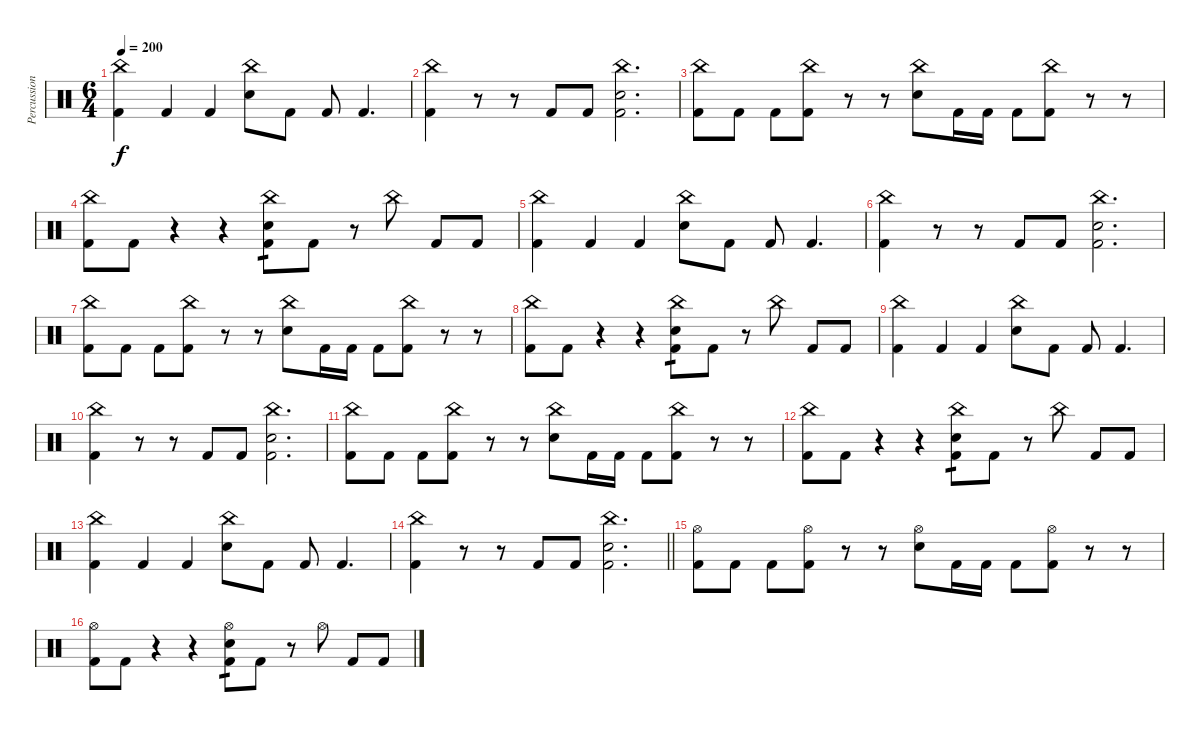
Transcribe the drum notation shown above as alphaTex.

\track ("Percussion" "Percussion") {instrument percussion}
\staff {score}
\articulation defaults
\ts (6 4)
\tempo 200
\clef neutral
\ks c
("China (hit)" "Kick (hit) 2").4{dy f} "Kick (hit) 2".4 "Kick (hit) 2".4 ("China (hit)" "Electric Snare (hit)").8 "Kick (hit) 2".8 "Kick (hit) 2".8 "Kick (hit) 2".4{d} |
("China (hit)" "Kick (hit) 2").4 r.8 r.8 "Kick (hit) 2".8 "Kick (hit) 2".8 ("China (hit)" "Electric Snare (hit)" "Kick (hit) 2").2{d} |
("China (hit)" "Kick (hit) 2").8 "Kick (hit) 2".8 "Kick (hit) 2".8 ("China (hit)" "Kick (hit) 2").8 r.8 r.8 ("China (hit)" "Electric Snare (hit)").8 "Kick (hit) 2".16 "Kick (hit) 2".16 "Kick (hit) 2".8 ("China (hit)" "Kick (hit) 2").8 r.8 r.8 |
("China (hit)" "Kick (hit) 2").8 "Kick (hit) 2".8 r.4 r.4 ("China (hit)" "Electric Snare (hit)" "Kick (hit) 2").8{tp 1} "Kick (hit) 2".8 r.8 "China (hit)".8 "Kick (hit) 2".8 "Kick (hit) 2".8 |
("China (hit)" "Kick (hit) 2").4 "Kick (hit) 2".4 "Kick (hit) 2".4 ("China (hit)" "Electric Snare (hit)").8 "Kick (hit) 2".8 "Kick (hit) 2".8 "Kick (hit) 2".4{d} |
("China (hit)" "Kick (hit) 2").4 r.8 r.8 "Kick (hit) 2".8 "Kick (hit) 2".8 ("China (hit)" "Electric Snare (hit)" "Kick (hit) 2").2{d} |
("China (hit)" "Kick (hit) 2").8 "Kick (hit) 2".8 "Kick (hit) 2".8 ("China (hit)" "Kick (hit) 2").8 r.8 r.8 ("China (hit)" "Electric Snare (hit)").8 "Kick (hit) 2".16 "Kick (hit) 2".16 "Kick (hit) 2".8 ("China (hit)" "Kick (hit) 2").8 r.8 r.8 |
("China (hit)" "Kick (hit) 2").8 "Kick (hit) 2".8 r.4 r.4 ("China (hit)" "Electric Snare (hit)" "Kick (hit) 2").8{tp 1} "Kick (hit) 2".8 r.8 "China (hit)".8 "Kick (hit) 2".8 "Kick (hit) 2".8 |
("China (hit)" "Kick (hit) 2").4 "Kick (hit) 2".4 "Kick (hit) 2".4 ("China (hit)" "Electric Snare (hit)").8 "Kick (hit) 2".8 "Kick (hit) 2".8 "Kick (hit) 2".4{d} |
("China (hit)" "Kick (hit) 2").4 r.8 r.8 "Kick (hit) 2".8 "Kick (hit) 2".8 ("China (hit)" "Electric Snare (hit)" "Kick (hit) 2").2{d} |
("China (hit)" "Kick (hit) 2").8 "Kick (hit) 2".8 "Kick (hit) 2".8 ("China (hit)" "Kick (hit) 2").8 r.8 r.8 ("China (hit)" "Electric Snare (hit)").8 "Kick (hit) 2".16 "Kick (hit) 2".16 "Kick (hit) 2".8 ("China (hit)" "Kick (hit) 2").8 r.8 r.8 |
("China (hit)" "Kick (hit) 2").8 "Kick (hit) 2".8 r.4 r.4 ("China (hit)" "Electric Snare (hit)" "Kick (hit) 2").8{tp 1} "Kick (hit) 2".8 r.8 "China (hit)".8 "Kick (hit) 2".8 "Kick (hit) 2".8 |
("China (hit)" "Kick (hit) 2").4 "Kick (hit) 2".4 "Kick (hit) 2".4 ("China (hit)" "Electric Snare (hit)").8 "Kick (hit) 2".8 "Kick (hit) 2".8 "Kick (hit) 2".4{d} |
\barLineRight lightlight
("China (hit)" "Kick (hit) 2").4 r.8 r.8 "Kick (hit) 2".8 "Kick (hit) 2".8 ("China (hit)" "Electric Snare (hit)" "Kick (hit) 2").2{d} |
\section ("" "")
("Hi-Hat (open)" "Kick (hit) 2").8 "Kick (hit) 2".8 "Kick (hit) 2".8 ("Hi-Hat (open)" "Kick (hit) 2").8 r.8 r.8 ("Hi-Hat (open)" "Electric Snare (hit)").8 "Kick (hit) 2".16 "Kick (hit) 2".16 "Kick (hit) 2".8 ("Hi-Hat (open)" "Kick (hit) 2").8 r.8 r.8 |
("Hi-Hat (open)" "Kick (hit) 2").8 "Kick (hit) 2".8 r.4 r.4 ("Hi-Hat (open)" "Electric Snare (hit)" "Kick (hit) 2").8{tp 1} "Kick (hit) 2".8 r.8 "Hi-Hat (open)".8 "Kick (hit) 2".8 "Kick (hit) 2".8
